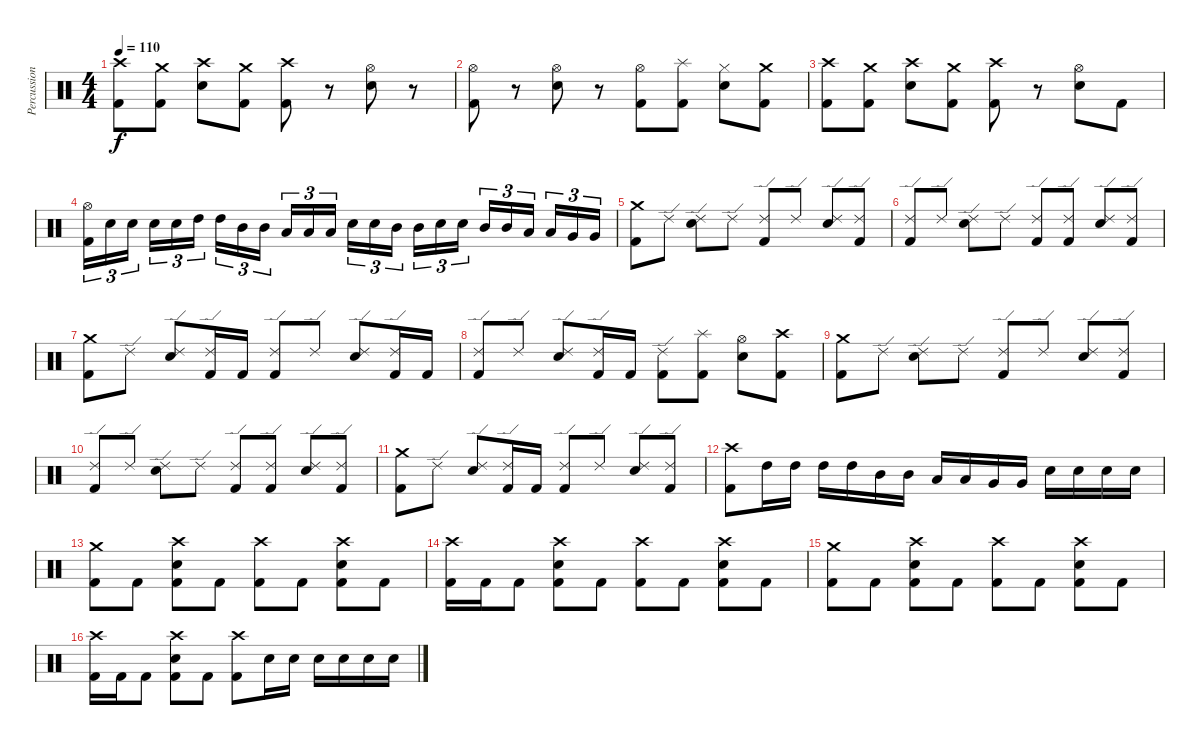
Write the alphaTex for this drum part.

\track ("Percussion" "Percussion") {instrument percussion}
\staff {score}
\articulation defaults
\ts (4 4)
\tempo 110
\clef neutral
\ks c
("Crash high (hit)" "Kick (hit) 2").8{dy f} ("Crash medium (hit)" "Kick (hit) 2").8 ("Crash high (hit)" "Electric Snare (hit)").8 ("Crash medium (hit)" "Kick (hit) 2").8 ("Crash high (hit)" "Kick (hit) 2").8 r.8 ("Hi-Hat (open)" "Electric Snare (hit)").8 r.8 |
("Hi-Hat (open)" "Kick (hit) 2").8 r.8 ("Hi-Hat (open)" "Electric Snare (hit)").8 r.8 ("Hi-Hat (open)" "Kick (hit) 2").8 ("Splash (hit)" "Kick (hit) 2").8 ("Hi-Hat (closed)" "Electric Snare (hit)").8 ("Crash medium (hit)" "Kick (hit) 2").8 |
("Crash high (hit)" "Kick (hit) 2").8 ("Crash medium (hit)" "Kick (hit) 2").8 ("Crash high (hit)" "Electric Snare (hit)").8 ("Crash medium (hit)" "Kick (hit) 2").8 ("Crash high (hit)" "Kick (hit) 2").8 r.8 ("Hi-Hat (open)" "Electric Snare (hit)").8 "Kick (hit) 2".8 |
("Hi-Hat (open)" "Kick (hit) 2").16{tu (3 2)} "Electric Snare (hit)".16{tu (3 2)} "Electric Snare (hit)".16{tu (3 2)} "Electric Snare (hit)".16{tu (3 2)} "Electric Snare (hit)".16{tu (3 2)} "High Tom (hit)".16{tu (3 2)} "High Tom (hit)".16{tu (3 2)} "Mid Tom (hit)".16{tu (3 2)} "Mid Tom (hit)".16{tu (3 2)} "Low Tom (hit)".16{tu (3 2)} "Low Tom (hit)".16{tu (3 2)} "Low Tom (hit)".16{tu (3 2)} "Electric Snare (hit)".16{tu (3 2)} "Electric Snare (hit)".16{tu (3 2)} "Mid Tom (hit)".16{tu (3 2)} "Mid Tom (hit)".16{tu (3 2)} "Electric Snare (hit)".16{tu (3 2)} "Electric Snare (hit)".16{tu (3 2)} "Mid Tom (hit)".16{tu (3 2)} "Mid Tom (hit)".16{tu (3 2)} "Low Tom (hit)".16{tu (3 2)} "Low Tom (hit)".16{tu (3 2)} "Very Low Tom (hit)".16{tu (3 2)} "Very Low Tom (hit)".16{tu (3 2)} |
("Crash medium (hit)" "Kick (hit) 2").8 "Ride (edge) 2".8 ("Ride (edge) 2" "Electric Snare (hit)").8 "Ride (edge) 2".8 ("Ride (edge) 2" "Kick (hit) 2").8 "Ride (edge) 2".8 ("Ride (edge) 2" "Electric Snare (hit)").8 ("Ride (edge) 2" "Kick (hit) 2").8 |
("Ride (edge) 2" "Kick (hit) 2").8 "Ride (edge) 2".8 ("Ride (edge) 2" "Electric Snare (hit)").8 "Ride (edge) 2".8 ("Ride (edge) 2" "Kick (hit) 2").8 ("Ride (edge) 2" "Kick (hit) 2").8 ("Ride (edge) 2" "Electric Snare (hit)").8 ("Ride (edge) 2" "Kick (hit) 2").8 |
("Crash medium (hit)" "Kick (hit) 2").8 "Ride (edge) 2".8 ("Ride (edge) 2" "Electric Snare (hit)").8 ("Ride (edge) 2" "Kick (hit) 2").16 "Kick (hit) 2".16 ("Ride (edge) 2" "Kick (hit) 2").8 "Ride (edge) 2".8 ("Ride (edge) 2" "Electric Snare (hit)").8 ("Ride (edge) 2" "Kick (hit) 2").16 "Kick (hit) 2".16 |
("Ride (edge) 2" "Kick (hit) 2").8 "Ride (edge) 2".8 ("Ride (edge) 2" "Electric Snare (hit)").8 ("Ride (edge) 2" "Kick (hit) 2").16 "Kick (hit) 2".16 ("Ride (edge) 2" "Kick (hit) 2").8 ("Splash (hit)" "Kick (hit) 2").8 ("Hi-Hat (open)" "Electric Snare (hit)").8 ("Crash high (hit)" "Kick (hit) 2").8 |
("Crash medium (hit)" "Kick (hit) 2").8 "Ride (edge) 2".8 ("Ride (edge) 2" "Electric Snare (hit)").8 "Ride (edge) 2".8 ("Ride (edge) 2" "Kick (hit) 2").8 "Ride (edge) 2".8 ("Ride (edge) 2" "Electric Snare (hit)").8 ("Ride (edge) 2" "Kick (hit) 2").8 |
("Ride (edge) 2" "Kick (hit) 2").8 "Ride (edge) 2".8 ("Ride (edge) 2" "Electric Snare (hit)").8 "Ride (edge) 2".8 ("Ride (edge) 2" "Kick (hit) 2").8 ("Ride (edge) 2" "Kick (hit) 2").8 ("Ride (edge) 2" "Electric Snare (hit)").8 ("Ride (edge) 2" "Kick (hit) 2").8 |
("Crash medium (hit)" "Kick (hit) 2").8 "Ride (edge) 2".8 ("Ride (edge) 2" "Electric Snare (hit)").8 ("Ride (edge) 2" "Kick (hit) 2").16 "Kick (hit) 2".16 ("Ride (edge) 2" "Kick (hit) 2").8 "Ride (edge) 2".8 ("Ride (edge) 2" "Electric Snare (hit)").8 ("Ride (edge) 2" "Kick (hit) 2").8 |
("Crash high (hit)" "Kick (hit) 2").8 "High Tom (hit)".16 "High Tom (hit)".16 "High Tom (hit)".16 "High Tom (hit)".16 "Mid Tom (hit)".16 "Mid Tom (hit)".16 "Low Tom (hit)".16 "Low Tom (hit)".16 "Very Low Tom (hit)".16 "Very Low Tom (hit)".16 "Electric Snare (hit)".16 "Electric Snare (hit)".16 "Electric Snare (hit)".16 "Electric Snare (hit)".16 |
("Crash medium (hit)" "Kick (hit) 2").8 "Kick (hit) 2".8 ("Crash high (hit)" "Electric Snare (hit)" "Kick (hit) 2").8 "Kick (hit) 2".8 ("Crash high (hit)" "Kick (hit) 2").8 "Kick (hit) 2".8 ("Crash high (hit)" "Electric Snare (hit)" "Kick (hit) 2").8 "Kick (hit) 2".8 |
("Crash high (hit)" "Kick (hit) 2").16 "Kick (hit) 2".16 "Kick (hit) 2".8 ("Crash high (hit)" "Electric Snare (hit)" "Kick (hit) 2").8 "Kick (hit) 2".8 ("Crash high (hit)" "Kick (hit) 2").8 "Kick (hit) 2".8 ("Crash high (hit)" "Electric Snare (hit)" "Kick (hit) 2").8 "Kick (hit) 2".8 |
("Crash medium (hit)" "Kick (hit) 2").8 "Kick (hit) 2".8 ("Crash high (hit)" "Electric Snare (hit)" "Kick (hit) 2").8 "Kick (hit) 2".8 ("Crash high (hit)" "Kick (hit) 2").8 "Kick (hit) 2".8 ("Crash high (hit)" "Electric Snare (hit)" "Kick (hit) 2").8 "Kick (hit) 2".8 |
("Crash high (hit)" "Kick (hit) 2").16 "Kick (hit) 2".16 "Kick (hit) 2".8 ("Crash high (hit)" "Electric Snare (hit)" "Kick (hit) 2").8 "Kick (hit) 2".8 ("Crash high (hit)" "Kick (hit) 2").8 "Electric Snare (hit)".16 "Electric Snare (hit)".16 "Electric Snare (hit)".16 "Electric Snare (hit)".16 "Electric Snare (hit)".16 "Electric Snare (hit)".16
